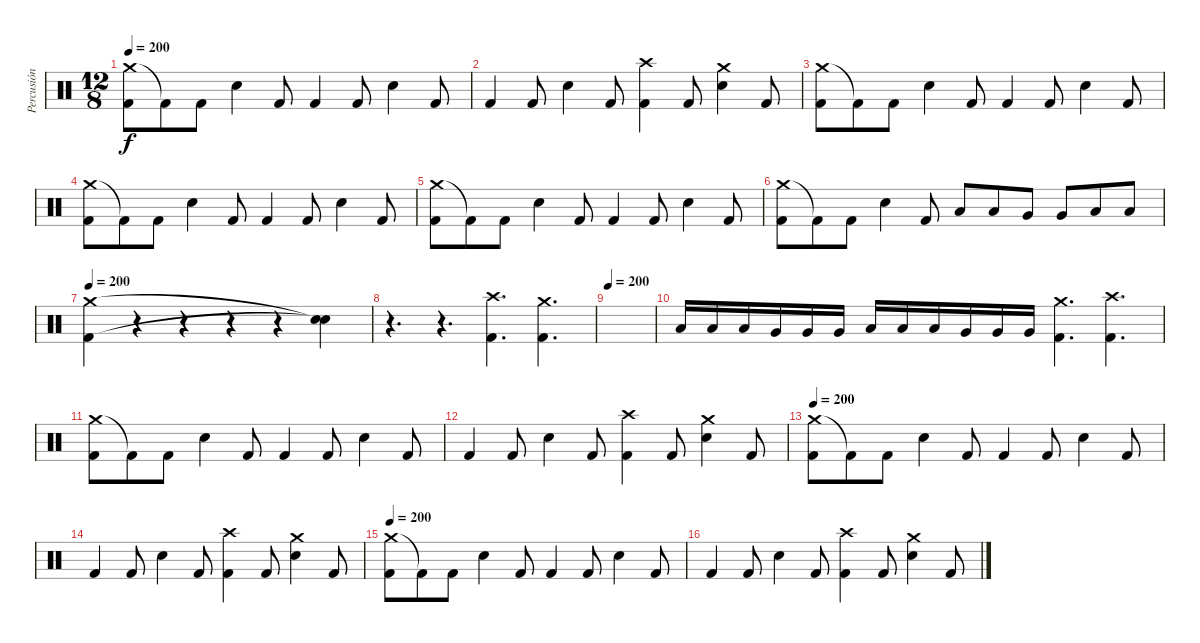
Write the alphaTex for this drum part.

\track ("Percusión" "Percusión") {instrument percussion}
\staff {score}
\articulation defaults
\ts (12 8)
\tempo 200
\clef neutral
\ks c
("Crash medium (hit)" "Kick (hit) 2").8{dy f} "Kick (hit) 2"{t}.8 "Kick (hit) 2".8 "Electric Snare (hit)".4 "Kick (hit) 2".8 "Kick (hit) 2".4 "Kick (hit) 2".8 "Electric Snare (hit)".4 "Kick (hit) 2".8 |
"Kick (hit) 2".4 "Kick (hit) 2".8 "Electric Snare (hit)".4 "Kick (hit) 2".8 ("Crash high (hit)" "Kick (hit) 2").4 "Kick (hit) 2".8 ("Crash medium (hit)" "Electric Snare (hit)").4 "Kick (hit) 2".8 |
("Crash medium (hit)" "Kick (hit) 2").8 "Kick (hit) 2"{t}.8 "Kick (hit) 2".8 "Electric Snare (hit)".4 "Kick (hit) 2".8 "Kick (hit) 2".4 "Kick (hit) 2".8 "Electric Snare (hit)".4 "Kick (hit) 2".8 |
("Crash medium (hit)" "Kick (hit) 2").8 "Kick (hit) 2"{t}.8 "Kick (hit) 2".8 "Electric Snare (hit)".4 "Kick (hit) 2".8 "Kick (hit) 2".4 "Kick (hit) 2".8 "Electric Snare (hit)".4 "Kick (hit) 2".8 |
("Crash medium (hit)" "Kick (hit) 2").8 "Kick (hit) 2"{t}.8 "Kick (hit) 2".8 "Electric Snare (hit)".4 "Kick (hit) 2".8 "Kick (hit) 2".4 "Kick (hit) 2".8 "Electric Snare (hit)".4 "Kick (hit) 2".8 |
("Crash medium (hit)" "Kick (hit) 2").8 "Kick (hit) 2"{t}.8 "Kick (hit) 2".8 "Electric Snare (hit)".4 "Kick (hit) 2".8 "Low Tom (hit)".8 "Low Tom (hit)".8 "Very Low Tom (hit)".8 "Very Low Tom (hit)".8 "Low Floor Tom (hit)".8 "Low Floor Tom (hit)".8 |
\tempo 200
("Crash medium (hit)" "Kick (hit) 2").4 r.4 r.4 r.4 r.4 ("Snare (hit)"{t} "Snare (hit)"{t}).4 |
r.4{d} r.4{d} ("Crash high (hit)" "Kick (hit) 2").4{d} ("Crash medium (hit)" "Kick (hit) 2").4{d} |
\tempo 200
|
"Low Tom (hit)".16 "Low Tom (hit)".16 "Low Tom (hit)".16 "Very Low Tom (hit)".16 "Very Low Tom (hit)".16 "Very Low Tom (hit)".16 "Low Floor Tom (hit)".16 "Low Floor Tom (hit)".16 "Low Floor Tom (hit)".16 "Very Low Tom (hit)".16 "Very Low Tom (hit)".16 "Very Low Tom (hit)".16 ("Crash medium (hit)" "Kick (hit) 2").4{d} ("Crash high (hit)" "Kick (hit) 2").4{d} |
("Crash medium (hit)" "Kick (hit) 2").8 "Kick (hit) 2"{t}.8 "Kick (hit) 2".8 "Electric Snare (hit)".4 "Kick (hit) 2".8 "Kick (hit) 2".4 "Kick (hit) 2".8 "Electric Snare (hit)".4 "Kick (hit) 2".8 |
"Kick (hit) 2".4 "Kick (hit) 2".8 "Electric Snare (hit)".4 "Kick (hit) 2".8 ("Crash high (hit)" "Kick (hit) 2").4 "Kick (hit) 2".8 ("Crash medium (hit)" "Electric Snare (hit)").4 "Kick (hit) 2".8 |
\tempo 200
("Crash medium (hit)" "Kick (hit) 2").8 "Kick (hit) 2"{t}.8 "Kick (hit) 2".8 "Electric Snare (hit)".4 "Kick (hit) 2".8 "Kick (hit) 2".4 "Kick (hit) 2".8 "Electric Snare (hit)".4 "Kick (hit) 2".8 |
"Kick (hit) 2".4 "Kick (hit) 2".8 "Electric Snare (hit)".4 "Kick (hit) 2".8 ("Crash high (hit)" "Kick (hit) 2").4 "Kick (hit) 2".8 ("Crash medium (hit)" "Electric Snare (hit)").4 "Kick (hit) 2".8 |
\tempo 200
("Crash medium (hit)" "Kick (hit) 2").8 "Kick (hit) 2"{t}.8 "Kick (hit) 2".8 "Electric Snare (hit)".4 "Kick (hit) 2".8 "Kick (hit) 2".4 "Kick (hit) 2".8 "Electric Snare (hit)".4 "Kick (hit) 2".8 |
"Kick (hit) 2".4 "Kick (hit) 2".8 "Electric Snare (hit)".4 "Kick (hit) 2".8 ("Crash high (hit)" "Kick (hit) 2").4 "Kick (hit) 2".8 ("Crash medium (hit)" "Electric Snare (hit)").4 "Kick (hit) 2".8
